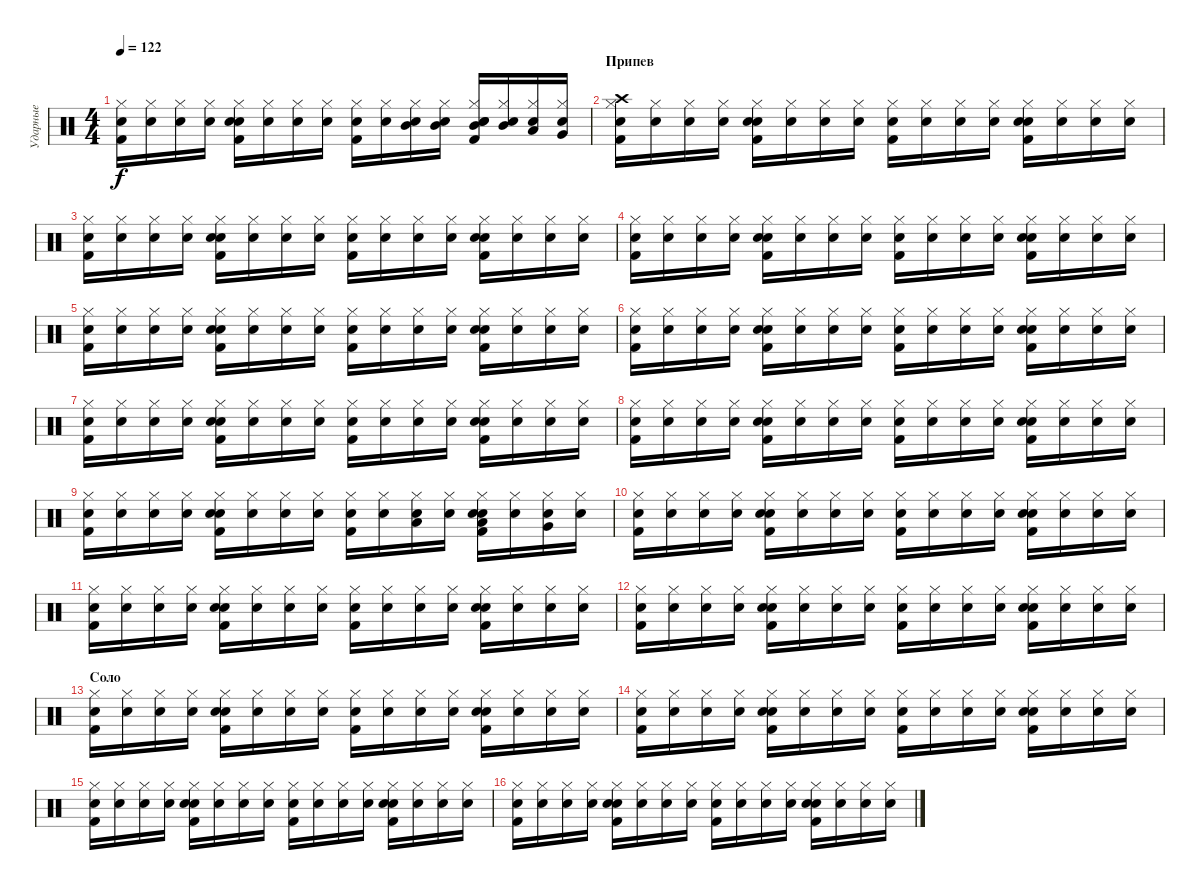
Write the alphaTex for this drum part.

\track ("Ударные" "Ударные") {instrument percussion}
\staff {score}
\articulation defaults
\ts (4 4)
\tempo 122
\clef neutral
\ks c
("Snare (hit)" "Kick (hit) 2" "Hi-Hat (closed)").16{dy f} ("Snare (hit)" "Hi-Hat (closed)").16 ("Snare (hit)" "Hi-Hat (closed)").16 ("Snare (hit)" "Hi-Hat (closed)").16 ("Snare (hit)" "Kick (hit) 2" "Snare (hit) 2" "Hi-Hat (closed)").16 ("Snare (hit)" "Hi-Hat (closed)").16 ("Snare (hit)" "Hi-Hat (closed)").16 ("Snare (hit)" "Hi-Hat (closed)").16 ("Snare (hit)" "Kick (hit) 2" "Hi-Hat (closed)").16 ("Snare (hit)" "Hi-Hat (closed)").16 ("Snare (hit)" "Mid Tom (hit)" "Hi-Hat (closed)").16 ("Snare (hit)" "Hi-Hat (closed)" "Mid Tom (hit)").16 ("Snare (hit)" "Kick (hit) 2" "Snare (hit) 2" "Hi-Hat (closed)" "Mid Tom (hit)").16 ("Snare (hit)" "Hi-Hat (closed)" "Mid Tom (hit)").16 ("Snare (hit)" "Hi-Hat (closed)" "Low Tom (hit)").16 ("Snare (hit)" "Hi-Hat (closed)" "Very Low Tom (hit)").16 |
\section ("" "Припев")
("Snare (hit)" "Crash high (hit)" "Kick (hit) 2" "Hi-Hat (closed)").16 ("Snare (hit)" "Hi-Hat (closed)").16 ("Snare (hit)" "Hi-Hat (closed)").16 ("Snare (hit)" "Hi-Hat (closed)").16 ("Snare (hit)" "Kick (hit) 2" "Snare (hit) 2" "Hi-Hat (closed)").16 ("Snare (hit)" "Hi-Hat (closed)").16 ("Snare (hit)" "Hi-Hat (closed)").16 ("Snare (hit)" "Hi-Hat (closed)").16 ("Snare (hit)" "Kick (hit) 2" "Hi-Hat (closed)").16 ("Snare (hit)" "Hi-Hat (closed)").16 ("Snare (hit)" "Hi-Hat (closed)").16 ("Snare (hit)" "Hi-Hat (closed)").16 ("Snare (hit)" "Kick (hit) 2" "Snare (hit) 2" "Hi-Hat (closed)").16 ("Snare (hit)" "Hi-Hat (closed)").16 ("Snare (hit)" "Hi-Hat (closed)").16 ("Snare (hit)" "Hi-Hat (closed)").16 |
("Snare (hit)" "Kick (hit) 2" "Hi-Hat (closed)").16 ("Snare (hit)" "Hi-Hat (closed)").16 ("Snare (hit)" "Hi-Hat (closed)").16 ("Snare (hit)" "Hi-Hat (closed)").16 ("Snare (hit)" "Kick (hit) 2" "Snare (hit) 2" "Hi-Hat (closed)").16 ("Snare (hit)" "Hi-Hat (closed)").16 ("Snare (hit)" "Hi-Hat (closed)").16 ("Snare (hit)" "Hi-Hat (closed)").16 ("Snare (hit)" "Kick (hit) 2" "Hi-Hat (closed)").16 ("Snare (hit)" "Hi-Hat (closed)").16 ("Snare (hit)" "Hi-Hat (closed)").16 ("Snare (hit)" "Hi-Hat (closed)").16 ("Snare (hit)" "Kick (hit) 2" "Snare (hit) 2" "Hi-Hat (closed)").16 ("Snare (hit)" "Hi-Hat (closed)").16 ("Snare (hit)" "Hi-Hat (closed)").16 ("Snare (hit)" "Hi-Hat (closed)").16 |
("Snare (hit)" "Kick (hit) 2" "Hi-Hat (closed)").16 ("Snare (hit)" "Hi-Hat (closed)").16 ("Snare (hit)" "Hi-Hat (closed)").16 ("Snare (hit)" "Hi-Hat (closed)").16 ("Snare (hit)" "Kick (hit) 2" "Snare (hit) 2" "Hi-Hat (closed)").16 ("Snare (hit)" "Hi-Hat (closed)").16 ("Snare (hit)" "Hi-Hat (closed)").16 ("Snare (hit)" "Hi-Hat (closed)").16 ("Snare (hit)" "Kick (hit) 2" "Hi-Hat (closed)").16 ("Snare (hit)" "Hi-Hat (closed)").16 ("Snare (hit)" "Hi-Hat (closed)").16 ("Snare (hit)" "Hi-Hat (closed)").16 ("Snare (hit)" "Kick (hit) 2" "Snare (hit) 2" "Hi-Hat (closed)").16 ("Snare (hit)" "Hi-Hat (closed)").16 ("Snare (hit)" "Hi-Hat (closed)").16 ("Snare (hit)" "Hi-Hat (closed)").16 |
("Snare (hit)" "Kick (hit) 2" "Hi-Hat (closed)").16 ("Snare (hit)" "Hi-Hat (closed)").16 ("Snare (hit)" "Hi-Hat (closed)").16 ("Snare (hit)" "Hi-Hat (closed)").16 ("Snare (hit)" "Kick (hit) 2" "Snare (hit) 2" "Hi-Hat (closed)").16 ("Snare (hit)" "Hi-Hat (closed)").16 ("Snare (hit)" "Hi-Hat (closed)").16 ("Snare (hit)" "Hi-Hat (closed)").16 ("Snare (hit)" "Kick (hit) 2" "Hi-Hat (closed)").16 ("Snare (hit)" "Hi-Hat (closed)").16 ("Snare (hit)" "Hi-Hat (closed)").16 ("Snare (hit)" "Hi-Hat (closed)").16 ("Snare (hit)" "Kick (hit) 2" "Snare (hit) 2" "Hi-Hat (closed)").16 ("Snare (hit)" "Hi-Hat (closed)").16 ("Snare (hit)" "Hi-Hat (closed)").16 ("Snare (hit)" "Hi-Hat (closed)").16 |
("Snare (hit)" "Kick (hit) 2" "Hi-Hat (closed)").16 ("Snare (hit)" "Hi-Hat (closed)").16 ("Snare (hit)" "Hi-Hat (closed)").16 ("Snare (hit)" "Hi-Hat (closed)").16 ("Snare (hit)" "Kick (hit) 2" "Snare (hit) 2" "Hi-Hat (closed)").16 ("Snare (hit)" "Hi-Hat (closed)").16 ("Snare (hit)" "Hi-Hat (closed)").16 ("Snare (hit)" "Hi-Hat (closed)").16 ("Snare (hit)" "Kick (hit) 2" "Hi-Hat (closed)").16 ("Snare (hit)" "Hi-Hat (closed)").16 ("Snare (hit)" "Hi-Hat (closed)").16 ("Snare (hit)" "Hi-Hat (closed)").16 ("Snare (hit)" "Kick (hit) 2" "Snare (hit) 2" "Hi-Hat (closed)").16 ("Snare (hit)" "Hi-Hat (closed)").16 ("Snare (hit)" "Hi-Hat (closed)").16 ("Snare (hit)" "Hi-Hat (closed)").16 |
("Snare (hit)" "Kick (hit) 2" "Hi-Hat (closed)").16 ("Snare (hit)" "Hi-Hat (closed)").16 ("Snare (hit)" "Hi-Hat (closed)").16 ("Snare (hit)" "Hi-Hat (closed)").16 ("Snare (hit)" "Kick (hit) 2" "Snare (hit) 2" "Hi-Hat (closed)").16 ("Snare (hit)" "Hi-Hat (closed)").16 ("Snare (hit)" "Hi-Hat (closed)").16 ("Snare (hit)" "Hi-Hat (closed)").16 ("Snare (hit)" "Kick (hit) 2" "Hi-Hat (closed)").16 ("Snare (hit)" "Hi-Hat (closed)").16 ("Snare (hit)" "Hi-Hat (closed)").16 ("Snare (hit)" "Hi-Hat (closed)").16 ("Snare (hit)" "Kick (hit) 2" "Snare (hit) 2" "Hi-Hat (closed)").16 ("Snare (hit)" "Hi-Hat (closed)").16 ("Snare (hit)" "Hi-Hat (closed)").16 ("Snare (hit)" "Hi-Hat (closed)").16 |
("Snare (hit)" "Kick (hit) 2" "Hi-Hat (closed)").16 ("Snare (hit)" "Hi-Hat (closed)").16 ("Snare (hit)" "Hi-Hat (closed)").16 ("Snare (hit)" "Hi-Hat (closed)").16 ("Snare (hit)" "Kick (hit) 2" "Snare (hit) 2" "Hi-Hat (closed)").16 ("Snare (hit)" "Hi-Hat (closed)").16 ("Snare (hit)" "Hi-Hat (closed)").16 ("Snare (hit)" "Hi-Hat (closed)").16 ("Snare (hit)" "Kick (hit) 2" "Hi-Hat (closed)").16 ("Snare (hit)" "Hi-Hat (closed)").16 ("Snare (hit)" "Hi-Hat (closed)").16 ("Snare (hit)" "Hi-Hat (closed)").16 ("Snare (hit)" "Kick (hit) 2" "Snare (hit) 2" "Hi-Hat (closed)").16 ("Snare (hit)" "Hi-Hat (closed)").16 ("Snare (hit)" "Hi-Hat (closed)").16 ("Snare (hit)" "Hi-Hat (closed)").16 |
("Snare (hit)" "Kick (hit) 2" "Hi-Hat (closed)").16 ("Snare (hit)" "Hi-Hat (closed)").16 ("Snare (hit)" "Hi-Hat (closed)").16 ("Snare (hit)" "Hi-Hat (closed)").16 ("Snare (hit)" "Kick (hit) 2" "Snare (hit) 2" "Hi-Hat (closed)").16 ("Snare (hit)" "Hi-Hat (closed)").16 ("Snare (hit)" "Hi-Hat (closed)").16 ("Snare (hit)" "Hi-Hat (closed)").16 ("Snare (hit)" "Kick (hit) 2" "Hi-Hat (closed)").16 ("Snare (hit)" "Hi-Hat (closed)").16 ("Snare (hit)" "Low Tom (hit)" "Hi-Hat (closed)").16 ("Snare (hit)" "Hi-Hat (closed)").16 ("Snare (hit)" "Low Tom (hit)" "Kick (hit) 2" "Snare (hit) 2" "Hi-Hat (closed)").16 ("Snare (hit)" "Hi-Hat (closed)").16 ("Snare (hit)" "Very Low Tom (hit)" "Hi-Hat (closed)").16 ("Snare (hit)" "Hi-Hat (closed)").16 |
("Snare (hit)" "Kick (hit) 2" "Hi-Hat (closed)").16 ("Snare (hit)" "Hi-Hat (closed)").16 ("Snare (hit)" "Hi-Hat (closed)").16 ("Snare (hit)" "Hi-Hat (closed)").16 ("Snare (hit)" "Kick (hit) 2" "Snare (hit) 2" "Hi-Hat (closed)").16 ("Snare (hit)" "Hi-Hat (closed)").16 ("Snare (hit)" "Hi-Hat (closed)").16 ("Snare (hit)" "Hi-Hat (closed)").16 ("Snare (hit)" "Kick (hit) 2" "Hi-Hat (closed)").16 ("Snare (hit)" "Hi-Hat (closed)").16 ("Snare (hit)" "Hi-Hat (closed)").16 ("Snare (hit)" "Hi-Hat (closed)").16 ("Snare (hit)" "Kick (hit) 2" "Snare (hit) 2" "Hi-Hat (closed)").16 ("Snare (hit)" "Hi-Hat (closed)").16 ("Snare (hit)" "Hi-Hat (closed)").16 ("Snare (hit)" "Hi-Hat (closed)").16 |
("Snare (hit)" "Kick (hit) 2" "Hi-Hat (closed)").16 ("Snare (hit)" "Hi-Hat (closed)").16 ("Snare (hit)" "Hi-Hat (closed)").16 ("Snare (hit)" "Hi-Hat (closed)").16 ("Snare (hit)" "Kick (hit) 2" "Snare (hit) 2" "Hi-Hat (closed)").16 ("Snare (hit)" "Hi-Hat (closed)").16 ("Snare (hit)" "Hi-Hat (closed)").16 ("Snare (hit)" "Hi-Hat (closed)").16 ("Snare (hit)" "Kick (hit) 2" "Hi-Hat (closed)").16 ("Snare (hit)" "Hi-Hat (closed)").16 ("Snare (hit)" "Hi-Hat (closed)").16 ("Snare (hit)" "Hi-Hat (closed)").16 ("Snare (hit)" "Kick (hit) 2" "Snare (hit) 2" "Hi-Hat (closed)").16 ("Snare (hit)" "Hi-Hat (closed)").16 ("Snare (hit)" "Hi-Hat (closed)").16 ("Snare (hit)" "Hi-Hat (closed)").16 |
("Snare (hit)" "Kick (hit) 2" "Hi-Hat (closed)").16 ("Snare (hit)" "Hi-Hat (closed)").16 ("Snare (hit)" "Hi-Hat (closed)").16 ("Snare (hit)" "Hi-Hat (closed)").16 ("Snare (hit)" "Kick (hit) 2" "Snare (hit) 2" "Hi-Hat (closed)").16 ("Snare (hit)" "Hi-Hat (closed)").16 ("Snare (hit)" "Hi-Hat (closed)").16 ("Snare (hit)" "Hi-Hat (closed)").16 ("Snare (hit)" "Kick (hit) 2" "Hi-Hat (closed)").16 ("Snare (hit)" "Hi-Hat (closed)").16 ("Snare (hit)" "Hi-Hat (closed)").16 ("Snare (hit)" "Hi-Hat (closed)").16 ("Snare (hit)" "Kick (hit) 2" "Snare (hit) 2" "Hi-Hat (closed)").16 ("Snare (hit)" "Hi-Hat (closed)").16 ("Snare (hit)" "Hi-Hat (closed)").16 ("Snare (hit)" "Hi-Hat (closed)").16 |
\section ("" "Соло")
("Snare (hit)" "Kick (hit) 2" "Hi-Hat (closed)").16 ("Snare (hit)" "Hi-Hat (closed)").16 ("Snare (hit)" "Hi-Hat (closed)").16 ("Snare (hit)" "Hi-Hat (closed)").16 ("Snare (hit)" "Kick (hit) 2" "Snare (hit) 2" "Hi-Hat (closed)").16 ("Snare (hit)" "Hi-Hat (closed)").16 ("Snare (hit)" "Hi-Hat (closed)").16 ("Snare (hit)" "Hi-Hat (closed)").16 ("Snare (hit)" "Kick (hit) 2" "Hi-Hat (closed)").16 ("Snare (hit)" "Hi-Hat (closed)").16 ("Snare (hit)" "Hi-Hat (closed)").16 ("Snare (hit)" "Hi-Hat (closed)").16 ("Snare (hit)" "Kick (hit) 2" "Snare (hit) 2" "Hi-Hat (closed)").16 ("Snare (hit)" "Hi-Hat (closed)").16 ("Snare (hit)" "Hi-Hat (closed)").16 ("Snare (hit)" "Hi-Hat (closed)").16 |
("Snare (hit)" "Kick (hit) 2" "Hi-Hat (closed)").16 ("Snare (hit)" "Hi-Hat (closed)").16 ("Snare (hit)" "Hi-Hat (closed)").16 ("Snare (hit)" "Hi-Hat (closed)").16 ("Snare (hit)" "Kick (hit) 2" "Snare (hit) 2" "Hi-Hat (closed)").16 ("Snare (hit)" "Hi-Hat (closed)").16 ("Snare (hit)" "Hi-Hat (closed)").16 ("Snare (hit)" "Hi-Hat (closed)").16 ("Snare (hit)" "Kick (hit) 2" "Hi-Hat (closed)").16 ("Snare (hit)" "Hi-Hat (closed)").16 ("Snare (hit)" "Hi-Hat (closed)").16 ("Snare (hit)" "Hi-Hat (closed)").16 ("Snare (hit)" "Kick (hit) 2" "Snare (hit) 2" "Hi-Hat (closed)").16 ("Snare (hit)" "Hi-Hat (closed)").16 ("Snare (hit)" "Hi-Hat (closed)").16 ("Snare (hit)" "Hi-Hat (closed)").16 |
("Snare (hit)" "Kick (hit) 2" "Hi-Hat (closed)").16 ("Snare (hit)" "Hi-Hat (closed)").16 ("Snare (hit)" "Hi-Hat (closed)").16 ("Snare (hit)" "Hi-Hat (closed)").16 ("Snare (hit)" "Kick (hit) 2" "Snare (hit) 2" "Hi-Hat (closed)").16 ("Snare (hit)" "Hi-Hat (closed)").16 ("Snare (hit)" "Hi-Hat (closed)").16 ("Snare (hit)" "Hi-Hat (closed)").16 ("Snare (hit)" "Kick (hit) 2" "Hi-Hat (closed)").16 ("Snare (hit)" "Hi-Hat (closed)").16 ("Snare (hit)" "Hi-Hat (closed)").16 ("Snare (hit)" "Hi-Hat (closed)").16 ("Snare (hit)" "Kick (hit) 2" "Snare (hit) 2" "Hi-Hat (closed)").16 ("Snare (hit)" "Hi-Hat (closed)").16 ("Snare (hit)" "Hi-Hat (closed)").16 ("Snare (hit)" "Hi-Hat (closed)").16 |
("Snare (hit)" "Kick (hit) 2" "Hi-Hat (closed)").16 ("Snare (hit)" "Hi-Hat (closed)").16 ("Snare (hit)" "Hi-Hat (closed)").16 ("Snare (hit)" "Hi-Hat (closed)").16 ("Snare (hit)" "Kick (hit) 2" "Snare (hit) 2" "Hi-Hat (closed)").16 ("Snare (hit)" "Hi-Hat (closed)").16 ("Snare (hit)" "Hi-Hat (closed)").16 ("Snare (hit)" "Hi-Hat (closed)").16 ("Snare (hit)" "Kick (hit) 2" "Hi-Hat (closed)").16 ("Snare (hit)" "Hi-Hat (closed)").16 ("Snare (hit)" "Hi-Hat (closed)").16 ("Snare (hit)" "Hi-Hat (closed)").16 ("Snare (hit)" "Kick (hit) 2" "Snare (hit) 2" "Hi-Hat (closed)").16 ("Snare (hit)" "Hi-Hat (closed)").16 ("Snare (hit)" "Hi-Hat (closed)").16 ("Snare (hit)" "Hi-Hat (closed)").16
